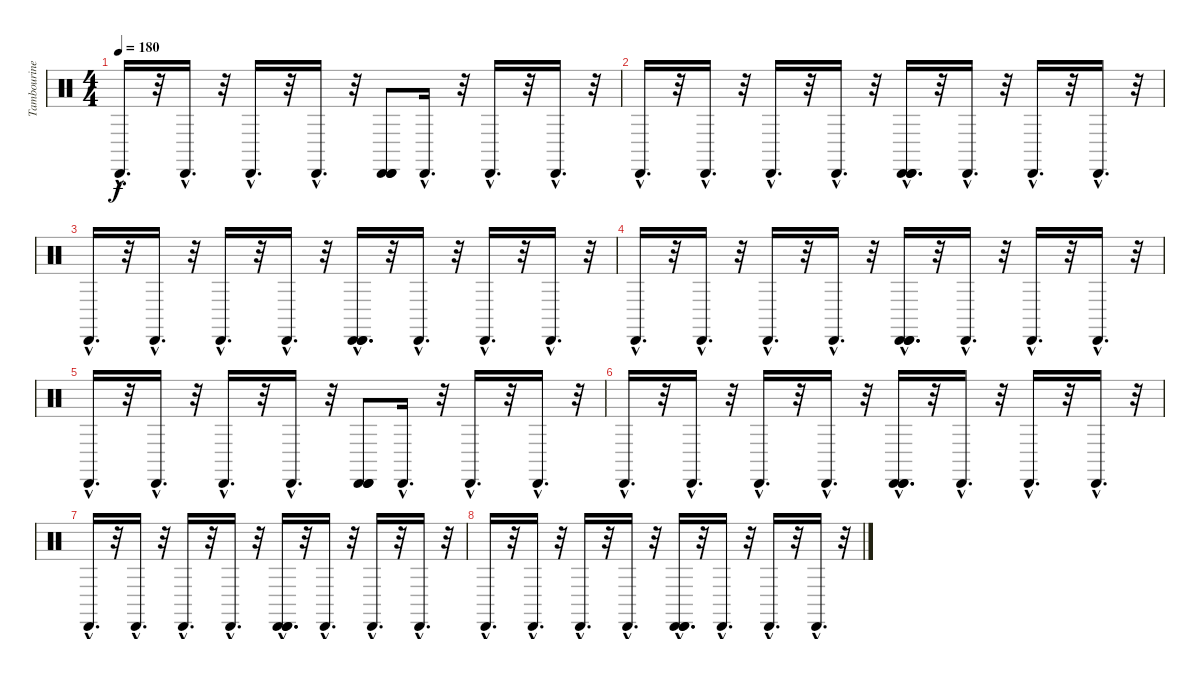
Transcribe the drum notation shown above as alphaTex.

\track ("Tambourine" "Tambourine") {instrument percussion}
\staff {score}
\articulation defaults
\ts (4 4)
\tempo 180
\clef neutral
\ks c "Cabasa (hit)"{hac}.16{d dy f}
r.32 "Cabasa (hit)"{hac}.16{d} r.32 "Cabasa (hit)"{hac}.16{d} r.32 "Cabasa (hit)"{hac}.16{d} r.32 ("Cabasa (hit)" "Cabasa (hit)" "Cabasa (hit)").8 "Cabasa (hit)"{hac}.16{d} r.32 "Cabasa (hit)"{hac}.16{d} r.32 "Cabasa (hit)"{hac}.16{d} r.32 |
"Cabasa (hit)"{hac}.16{d} r.32 "Cabasa (hit)"{hac}.16{d} r.32 "Cabasa (hit)"{hac}.16{d} r.32 "Cabasa (hit)"{hac}.16{d} r.32 ("Cabasa (hit)"{hac} "Cabasa (hit)"{hac} "Cabasa (hit)"{hac}).16{d} r.32 "Cabasa (hit)"{hac}.16{d} r.32 "Cabasa (hit)"{hac}.16{d} r.32 "Cabasa (hit)"{hac}.16{d} r.32 |
"Cabasa (hit)"{hac}.16{d} r.32 "Cabasa (hit)"{hac}.16{d} r.32 "Cabasa (hit)"{hac}.16{d} r.32 "Cabasa (hit)"{hac}.16{d} r.32 ("Cabasa (hit)"{hac} "Cabasa (hit)"{hac} "Cabasa (hit)"{hac}).16{d} r.32 "Cabasa (hit)"{hac}.16{d} r.32 "Cabasa (hit)"{hac}.16{d} r.32 "Cabasa (hit)"{hac}.16{d} r.32 |
"Cabasa (hit)"{hac}.16{d} r.32 "Cabasa (hit)"{hac}.16{d} r.32 "Cabasa (hit)"{hac}.16{d} r.32 "Cabasa (hit)"{hac}.16{d} r.32 ("Cabasa (hit)"{hac} "Cabasa (hit)"{hac} "Cabasa (hit)"{hac}).16{d} r.32 "Cabasa (hit)"{hac}.16{d} r.32 "Cabasa (hit)"{hac}.16{d} r.32 "Cabasa (hit)"{hac}.16{d} r.32 |
"Cabasa (hit)"{hac}.16{d} r.32 "Cabasa (hit)"{hac}.16{d} r.32 "Cabasa (hit)"{hac}.16{d} r.32 "Cabasa (hit)"{hac}.16{d} r.32 ("Cabasa (hit)" "Cabasa (hit)" "Cabasa (hit)").8 "Cabasa (hit)"{hac}.16{d} r.32 "Cabasa (hit)"{hac}.16{d} r.32 "Cabasa (hit)"{hac}.16{d} r.32 |
"Cabasa (hit)"{hac}.16{d} r.32 "Cabasa (hit)"{hac}.16{d} r.32 "Cabasa (hit)"{hac}.16{d} r.32 "Cabasa (hit)"{hac}.16{d} r.32 ("Cabasa (hit)"{hac} "Cabasa (hit)"{hac} "Cabasa (hit)"{hac}).16{d} r.32 "Cabasa (hit)"{hac}.16{d} r.32 "Cabasa (hit)"{hac}.16{d} r.32 "Cabasa (hit)"{hac}.16{d} r.32 |
"Cabasa (hit)"{hac}.16{d} r.32 "Cabasa (hit)"{hac}.16{d} r.32 "Cabasa (hit)"{hac}.16{d} r.32 "Cabasa (hit)"{hac}.16{d} r.32 ("Cabasa (hit)"{hac} "Cabasa (hit)"{hac} "Cabasa (hit)"{hac}).16{d} r.32 "Cabasa (hit)"{hac}.16{d} r.32 "Cabasa (hit)"{hac}.16{d} r.32 "Cabasa (hit)"{hac}.16{d} r.32 |
"Cabasa (hit)"{hac}.16{d} r.32 "Cabasa (hit)"{hac}.16{d} r.32 "Cabasa (hit)"{hac}.16{d} r.32 "Cabasa (hit)"{hac}.16{d} r.32 ("Cabasa (hit)"{hac} "Cabasa (hit)"{hac} "Cabasa (hit)"{hac}).16{d} r.32 "Cabasa (hit)"{hac}.16{d} r.32 "Cabasa (hit)"{hac}.16{d} r.32 "Cabasa (hit)"{hac}.16{d} r.32
